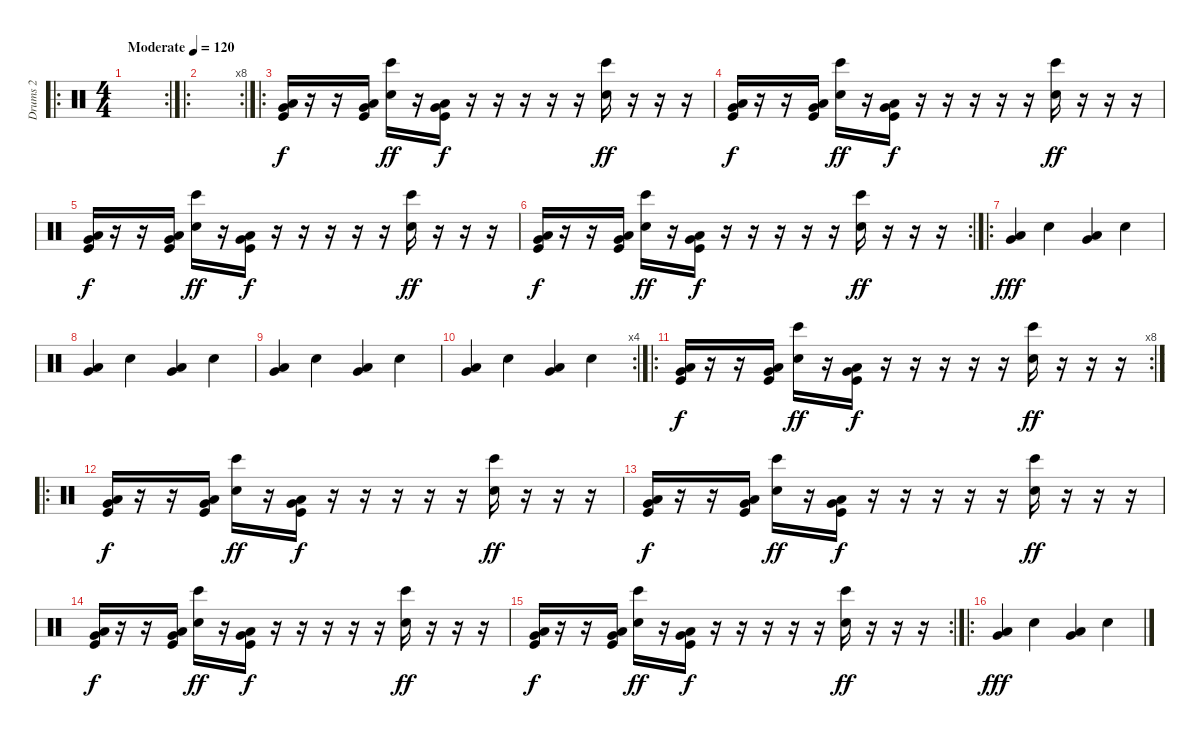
\track ("Drums 2" "Drums 2") {instrument percussion}
\staff {score}
\articulation defaults
\ro
\rc 2
\ts (4 4)
\tempo (120 "Moderate")
\clef neutral
\ks c
|
\ro
\rc 8
|
\ro
("Kick (hit)" "Low Floor Tom (hit)" "Very Low Tom (hit)").16 r.16 r.16 ("Kick (hit)" "Low Floor Tom (hit)" "Very Low Tom (hit)").16 ("Bongo High (hit)" "Hand Clap (hit)").16{dy ff} r.16 ("Kick (hit)" "Low Floor Tom (hit)" "Very Low Tom (hit)").16{dy f} r.16 r.16 r.16 r.16 r.16 ("Bongo High (hit)" "Hand Clap (hit)").16{dy ff} r.16 r.16 r.16 |
("Kick (hit)" "Low Floor Tom (hit)" "Very Low Tom (hit)").16{dy f} r.16 r.16 ("Kick (hit)" "Low Floor Tom (hit)" "Very Low Tom (hit)").16 ("Bongo High (hit)" "Hand Clap (hit)").16{dy ff} r.16 ("Kick (hit)" "Low Floor Tom (hit)" "Very Low Tom (hit)").16{dy f} r.16 r.16 r.16 r.16 r.16 ("Bongo High (hit)" "Hand Clap (hit)").16{dy ff} r.16 r.16 r.16 |
("Kick (hit)" "Low Floor Tom (hit)" "Very Low Tom (hit)").16{dy f} r.16 r.16 ("Kick (hit)" "Low Floor Tom (hit)" "Very Low Tom (hit)").16 ("Bongo High (hit)" "Hand Clap (hit)").16{dy ff} r.16 ("Kick (hit)" "Low Floor Tom (hit)" "Very Low Tom (hit)").16{dy f} r.16 r.16 r.16 r.16 r.16 ("Bongo High (hit)" "Hand Clap (hit)").16{dy ff} r.16 r.16 r.16 |
\rc 2
("Kick (hit)" "Low Floor Tom (hit)" "Very Low Tom (hit)").16{dy f} r.16 r.16 ("Kick (hit)" "Low Floor Tom (hit)" "Very Low Tom (hit)").16 ("Bongo High (hit)" "Hand Clap (hit)").16{dy ff} r.16 ("Kick (hit)" "Low Floor Tom (hit)" "Very Low Tom (hit)").16{dy f} r.16 r.16 r.16 r.16 r.16 ("Bongo High (hit)" "Hand Clap (hit)").16{dy ff} r.16 r.16 r.16 |
\ro
("Very Low Tom (hit)" "Low Floor Tom (hit)").4{dy fff} "Hand Clap (hit)".4 ("Very Low Tom (hit)" "Low Floor Tom (hit)").4 "Hand Clap (hit)".4 |
("Very Low Tom (hit)" "Low Floor Tom (hit)").4 "Hand Clap (hit)".4 ("Very Low Tom (hit)" "Low Floor Tom (hit)").4 "Hand Clap (hit)".4 |
("Very Low Tom (hit)" "Low Floor Tom (hit)").4 "Hand Clap (hit)".4 ("Very Low Tom (hit)" "Low Floor Tom (hit)").4 "Hand Clap (hit)".4 |
\rc 4
("Very Low Tom (hit)" "Low Floor Tom (hit)").4 "Hand Clap (hit)".4 ("Very Low Tom (hit)" "Low Floor Tom (hit)").4 "Hand Clap (hit)".4 |
\ro
\rc 8
("Kick (hit)" "Low Floor Tom (hit)" "Very Low Tom (hit)").16{dy f} r.16 r.16 ("Kick (hit)" "Low Floor Tom (hit)" "Very Low Tom (hit)").16 ("Bongo High (hit)" "Hand Clap (hit)").16{dy ff} r.16 ("Kick (hit)" "Low Floor Tom (hit)" "Very Low Tom (hit)").16{dy f} r.16 r.16 r.16 r.16 r.16 ("Bongo High (hit)" "Hand Clap (hit)").16{dy ff} r.16 r.16 r.16 |
\ro
("Kick (hit)" "Low Floor Tom (hit)" "Very Low Tom (hit)").16{dy f} r.16 r.16 ("Kick (hit)" "Low Floor Tom (hit)" "Very Low Tom (hit)").16 ("Bongo High (hit)" "Hand Clap (hit)").16{dy ff} r.16 ("Kick (hit)" "Low Floor Tom (hit)" "Very Low Tom (hit)").16{dy f} r.16 r.16 r.16 r.16 r.16 ("Bongo High (hit)" "Hand Clap (hit)").16{dy ff} r.16 r.16 r.16 |
("Kick (hit)" "Low Floor Tom (hit)" "Very Low Tom (hit)").16{dy f} r.16 r.16 ("Kick (hit)" "Low Floor Tom (hit)" "Very Low Tom (hit)").16 ("Bongo High (hit)" "Hand Clap (hit)").16{dy ff} r.16 ("Kick (hit)" "Low Floor Tom (hit)" "Very Low Tom (hit)").16{dy f} r.16 r.16 r.16 r.16 r.16 ("Bongo High (hit)" "Hand Clap (hit)").16{dy ff} r.16 r.16 r.16 |
("Kick (hit)" "Low Floor Tom (hit)" "Very Low Tom (hit)").16{dy f} r.16 r.16 ("Kick (hit)" "Low Floor Tom (hit)" "Very Low Tom (hit)").16 ("Bongo High (hit)" "Hand Clap (hit)").16{dy ff} r.16 ("Kick (hit)" "Low Floor Tom (hit)" "Very Low Tom (hit)").16{dy f} r.16 r.16 r.16 r.16 r.16 ("Bongo High (hit)" "Hand Clap (hit)").16{dy ff} r.16 r.16 r.16 |
\rc 2
("Kick (hit)" "Low Floor Tom (hit)" "Very Low Tom (hit)").16{dy f} r.16 r.16 ("Kick (hit)" "Low Floor Tom (hit)" "Very Low Tom (hit)").16 ("Bongo High (hit)" "Hand Clap (hit)").16{dy ff} r.16 ("Kick (hit)" "Low Floor Tom (hit)" "Very Low Tom (hit)").16{dy f} r.16 r.16 r.16 r.16 r.16 ("Bongo High (hit)" "Hand Clap (hit)").16{dy ff} r.16 r.16 r.16 |
\ro
("Very Low Tom (hit)" "Low Floor Tom (hit)").4{dy fff} "Hand Clap (hit)".4 ("Very Low Tom (hit)" "Low Floor Tom (hit)").4 "Hand Clap (hit)".4
